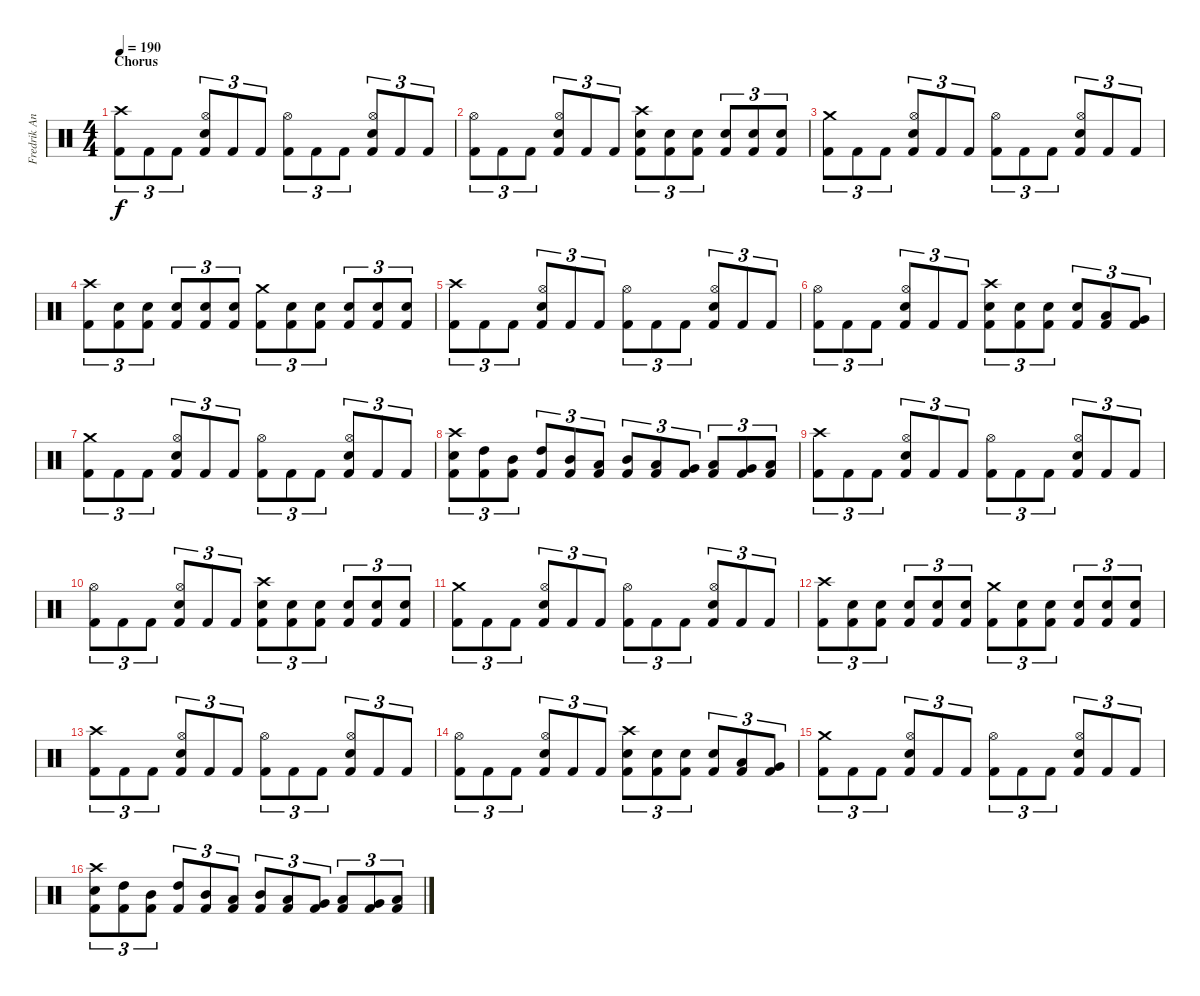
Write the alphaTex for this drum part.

\track ("Fredrik Andersson" "Fredrik An") {instrument percussion}
\staff {score}
\articulation defaults
\ts (4 4)
\section ("" "Chorus")
\tempo 190
\clef neutral
\ks c
("Crash high (hit)" "Kick (hit) 2").8{tu (3 2) dy f} "Kick (hit) 2".8{tu (3 2)} "Kick (hit) 2".8{tu (3 2)} ("Hi-Hat (open)" "Electric Snare (hit)" "Kick (hit) 2").8{tu (3 2)} "Kick (hit) 2".8{tu (3 2)} "Kick (hit) 2".8{tu (3 2)} ("Hi-Hat (open)" "Kick (hit) 2").8{tu (3 2)} "Kick (hit) 2".8{tu (3 2)} "Kick (hit) 2".8{tu (3 2)} ("Hi-Hat (open)" "Electric Snare (hit)" "Kick (hit) 2").8{tu (3 2)} "Kick (hit) 2".8{tu (3 2)} "Kick (hit) 2".8{tu (3 2)} |
("Hi-Hat (open)" "Kick (hit) 2").8{tu (3 2)} "Kick (hit) 2".8{tu (3 2)} "Kick (hit) 2".8{tu (3 2)} ("Hi-Hat (open)" "Electric Snare (hit)" "Kick (hit) 2").8{tu (3 2)} "Kick (hit) 2".8{tu (3 2)} "Kick (hit) 2".8{tu (3 2)} ("Crash high (hit)" "Electric Snare (hit)" "Kick (hit) 2").8{tu (3 2)} ("Electric Snare (hit)" "Kick (hit) 2").8{tu (3 2)} ("Electric Snare (hit)" "Kick (hit) 2").8{tu (3 2)} ("Electric Snare (hit)" "Kick (hit) 2").8{tu (3 2)} ("Electric Snare (hit)" "Kick (hit) 2").8{tu (3 2)} ("Electric Snare (hit)" "Kick (hit) 2").8{tu (3 2)} |
("Crash medium (hit)" "Kick (hit) 2").8{tu (3 2)} "Kick (hit) 2".8{tu (3 2)} "Kick (hit) 2".8{tu (3 2)} ("Hi-Hat (open)" "Electric Snare (hit)" "Kick (hit) 2").8{tu (3 2)} "Kick (hit) 2".8{tu (3 2)} "Kick (hit) 2".8{tu (3 2)} ("Hi-Hat (open)" "Kick (hit) 2").8{tu (3 2)} "Kick (hit) 2".8{tu (3 2)} "Kick (hit) 2".8{tu (3 2)} ("Hi-Hat (open)" "Electric Snare (hit)" "Kick (hit) 2").8{tu (3 2)} "Kick (hit) 2".8{tu (3 2)} "Kick (hit) 2".8{tu (3 2)} |
("Crash high (hit)" "Kick (hit) 2").8{tu (3 2)} ("Electric Snare (hit)" "Kick (hit) 2").8{tu (3 2)} ("Electric Snare (hit)" "Kick (hit) 2").8{tu (3 2)} ("Electric Snare (hit)" "Kick (hit) 2").8{tu (3 2)} ("Electric Snare (hit)" "Kick (hit) 2").8{tu (3 2)} ("Electric Snare (hit)" "Kick (hit) 2").8{tu (3 2)} ("Crash medium (hit)" "Kick (hit) 2").8{tu (3 2)} ("Electric Snare (hit)" "Kick (hit) 2").8{tu (3 2)} ("Electric Snare (hit)" "Kick (hit) 2").8{tu (3 2)} ("Electric Snare (hit)" "Kick (hit) 2").8{tu (3 2)} ("Electric Snare (hit)" "Kick (hit) 2").8{tu (3 2)} ("Electric Snare (hit)" "Kick (hit) 2").8{tu (3 2)} |
("Crash high (hit)" "Kick (hit) 2").8{tu (3 2)} "Kick (hit) 2".8{tu (3 2)} "Kick (hit) 2".8{tu (3 2)} ("Hi-Hat (open)" "Electric Snare (hit)" "Kick (hit) 2").8{tu (3 2)} "Kick (hit) 2".8{tu (3 2)} "Kick (hit) 2".8{tu (3 2)} ("Hi-Hat (open)" "Kick (hit) 2").8{tu (3 2)} "Kick (hit) 2".8{tu (3 2)} "Kick (hit) 2".8{tu (3 2)} ("Hi-Hat (open)" "Electric Snare (hit)" "Kick (hit) 2").8{tu (3 2)} "Kick (hit) 2".8{tu (3 2)} "Kick (hit) 2".8{tu (3 2)} |
("Hi-Hat (open)" "Kick (hit) 2").8{tu (3 2)} "Kick (hit) 2".8{tu (3 2)} "Kick (hit) 2".8{tu (3 2)} ("Hi-Hat (open)" "Electric Snare (hit)" "Kick (hit) 2").8{tu (3 2)} "Kick (hit) 2".8{tu (3 2)} "Kick (hit) 2".8{tu (3 2)} ("Crash high (hit)" "Electric Snare (hit)" "Kick (hit) 2").8{tu (3 2)} ("Electric Snare (hit)" "Kick (hit) 2").8{tu (3 2)} ("Electric Snare (hit)" "Kick (hit) 2").8{tu (3 2)} ("Electric Snare (hit)" "Kick (hit) 2").8{tu (3 2)} ("Low Tom (hit)" "Kick (hit) 2").8{tu (3 2)} ("Very Low Tom (hit)" "Kick (hit) 2").8{tu (3 2)} |
("Crash medium (hit)" "Kick (hit) 2").8{tu (3 2)} "Kick (hit) 2".8{tu (3 2)} "Kick (hit) 2".8{tu (3 2)} ("Hi-Hat (open)" "Electric Snare (hit)" "Kick (hit) 2").8{tu (3 2)} "Kick (hit) 2".8{tu (3 2)} "Kick (hit) 2".8{tu (3 2)} ("Hi-Hat (open)" "Kick (hit) 2").8{tu (3 2)} "Kick (hit) 2".8{tu (3 2)} "Kick (hit) 2".8{tu (3 2)} ("Hi-Hat (open)" "Electric Snare (hit)" "Kick (hit) 2").8{tu (3 2)} "Kick (hit) 2".8{tu (3 2)} "Kick (hit) 2".8{tu (3 2)} |
("Crash high (hit)" "Electric Snare (hit)" "Kick (hit) 2").8{tu (3 2)} ("High Tom (hit)" "Kick (hit) 2").8{tu (3 2)} ("Mid Tom (hit)" "Kick (hit) 2").8{tu (3 2)} ("High Tom (hit)" "Kick (hit) 2").8{tu (3 2)} ("Mid Tom (hit)" "Kick (hit) 2").8{tu (3 2)} ("Low Tom (hit)" "Kick (hit) 2").8{tu (3 2)} ("Mid Tom (hit)" "Kick (hit) 2").8{tu (3 2)} ("Low Tom (hit)" "Kick (hit) 2").8{tu (3 2)} ("Very Low Tom (hit)" "Kick (hit) 2").8{tu (3 2)} ("Low Tom (hit)" "Kick (hit) 2").8{tu (3 2)} ("Very Low Tom (hit)" "Kick (hit) 2").8{tu (3 2)} ("Low Floor Tom (hit)" "Kick (hit) 2").8{tu (3 2)} |
("Crash high (hit)" "Kick (hit) 2").8{tu (3 2)} "Kick (hit) 2".8{tu (3 2)} "Kick (hit) 2".8{tu (3 2)} ("Hi-Hat (open)" "Electric Snare (hit)" "Kick (hit) 2").8{tu (3 2)} "Kick (hit) 2".8{tu (3 2)} "Kick (hit) 2".8{tu (3 2)} ("Hi-Hat (open)" "Kick (hit) 2").8{tu (3 2)} "Kick (hit) 2".8{tu (3 2)} "Kick (hit) 2".8{tu (3 2)} ("Hi-Hat (open)" "Electric Snare (hit)" "Kick (hit) 2").8{tu (3 2)} "Kick (hit) 2".8{tu (3 2)} "Kick (hit) 2".8{tu (3 2)} |
("Hi-Hat (open)" "Kick (hit) 2").8{tu (3 2)} "Kick (hit) 2".8{tu (3 2)} "Kick (hit) 2".8{tu (3 2)} ("Hi-Hat (open)" "Electric Snare (hit)" "Kick (hit) 2").8{tu (3 2)} "Kick (hit) 2".8{tu (3 2)} "Kick (hit) 2".8{tu (3 2)} ("Crash high (hit)" "Electric Snare (hit)" "Kick (hit) 2").8{tu (3 2)} ("Electric Snare (hit)" "Kick (hit) 2").8{tu (3 2)} ("Electric Snare (hit)" "Kick (hit) 2").8{tu (3 2)} ("Electric Snare (hit)" "Kick (hit) 2").8{tu (3 2)} ("Electric Snare (hit)" "Kick (hit) 2").8{tu (3 2)} ("Electric Snare (hit)" "Kick (hit) 2").8{tu (3 2)} |
("Crash medium (hit)" "Kick (hit) 2").8{tu (3 2)} "Kick (hit) 2".8{tu (3 2)} "Kick (hit) 2".8{tu (3 2)} ("Hi-Hat (open)" "Electric Snare (hit)" "Kick (hit) 2").8{tu (3 2)} "Kick (hit) 2".8{tu (3 2)} "Kick (hit) 2".8{tu (3 2)} ("Hi-Hat (open)" "Kick (hit) 2").8{tu (3 2)} "Kick (hit) 2".8{tu (3 2)} "Kick (hit) 2".8{tu (3 2)} ("Hi-Hat (open)" "Electric Snare (hit)" "Kick (hit) 2").8{tu (3 2)} "Kick (hit) 2".8{tu (3 2)} "Kick (hit) 2".8{tu (3 2)} |
("Crash high (hit)" "Kick (hit) 2").8{tu (3 2)} ("Electric Snare (hit)" "Kick (hit) 2").8{tu (3 2)} ("Electric Snare (hit)" "Kick (hit) 2").8{tu (3 2)} ("Electric Snare (hit)" "Kick (hit) 2").8{tu (3 2)} ("Electric Snare (hit)" "Kick (hit) 2").8{tu (3 2)} ("Electric Snare (hit)" "Kick (hit) 2").8{tu (3 2)} ("Crash medium (hit)" "Kick (hit) 2").8{tu (3 2)} ("Electric Snare (hit)" "Kick (hit) 2").8{tu (3 2)} ("Electric Snare (hit)" "Kick (hit) 2").8{tu (3 2)} ("Electric Snare (hit)" "Kick (hit) 2").8{tu (3 2)} ("Electric Snare (hit)" "Kick (hit) 2").8{tu (3 2)} ("Electric Snare (hit)" "Kick (hit) 2").8{tu (3 2)} |
("Crash high (hit)" "Kick (hit) 2").8{tu (3 2)} "Kick (hit) 2".8{tu (3 2)} "Kick (hit) 2".8{tu (3 2)} ("Hi-Hat (open)" "Electric Snare (hit)" "Kick (hit) 2").8{tu (3 2)} "Kick (hit) 2".8{tu (3 2)} "Kick (hit) 2".8{tu (3 2)} ("Hi-Hat (open)" "Kick (hit) 2").8{tu (3 2)} "Kick (hit) 2".8{tu (3 2)} "Kick (hit) 2".8{tu (3 2)} ("Hi-Hat (open)" "Electric Snare (hit)" "Kick (hit) 2").8{tu (3 2)} "Kick (hit) 2".8{tu (3 2)} "Kick (hit) 2".8{tu (3 2)} |
("Hi-Hat (open)" "Kick (hit) 2").8{tu (3 2)} "Kick (hit) 2".8{tu (3 2)} "Kick (hit) 2".8{tu (3 2)} ("Hi-Hat (open)" "Electric Snare (hit)" "Kick (hit) 2").8{tu (3 2)} "Kick (hit) 2".8{tu (3 2)} "Kick (hit) 2".8{tu (3 2)} ("Crash high (hit)" "Electric Snare (hit)" "Kick (hit) 2").8{tu (3 2)} ("Electric Snare (hit)" "Kick (hit) 2").8{tu (3 2)} ("Electric Snare (hit)" "Kick (hit) 2").8{tu (3 2)} ("Electric Snare (hit)" "Kick (hit) 2").8{tu (3 2)} ("Low Tom (hit)" "Kick (hit) 2").8{tu (3 2)} ("Very Low Tom (hit)" "Kick (hit) 2").8{tu (3 2)} |
("Crash medium (hit)" "Kick (hit) 2").8{tu (3 2)} "Kick (hit) 2".8{tu (3 2)} "Kick (hit) 2".8{tu (3 2)} ("Hi-Hat (open)" "Electric Snare (hit)" "Kick (hit) 2").8{tu (3 2)} "Kick (hit) 2".8{tu (3 2)} "Kick (hit) 2".8{tu (3 2)} ("Hi-Hat (open)" "Kick (hit) 2").8{tu (3 2)} "Kick (hit) 2".8{tu (3 2)} "Kick (hit) 2".8{tu (3 2)} ("Hi-Hat (open)" "Electric Snare (hit)" "Kick (hit) 2").8{tu (3 2)} "Kick (hit) 2".8{tu (3 2)} "Kick (hit) 2".8{tu (3 2)} |
("Crash high (hit)" "Electric Snare (hit)" "Kick (hit) 2").8{tu (3 2)} ("High Tom (hit)" "Kick (hit) 2").8{tu (3 2)} ("Mid Tom (hit)" "Kick (hit) 2").8{tu (3 2)} ("High Tom (hit)" "Kick (hit) 2").8{tu (3 2)} ("Mid Tom (hit)" "Kick (hit) 2").8{tu (3 2)} ("Low Tom (hit)" "Kick (hit) 2").8{tu (3 2)} ("Mid Tom (hit)" "Kick (hit) 2").8{tu (3 2)} ("Low Tom (hit)" "Kick (hit) 2").8{tu (3 2)} ("Very Low Tom (hit)" "Kick (hit) 2").8{tu (3 2)} ("Low Tom (hit)" "Kick (hit) 2").8{tu (3 2)} ("Very Low Tom (hit)" "Kick (hit) 2").8{tu (3 2)} ("Low Floor Tom (hit)" "Kick (hit) 2").8{tu (3 2)}
